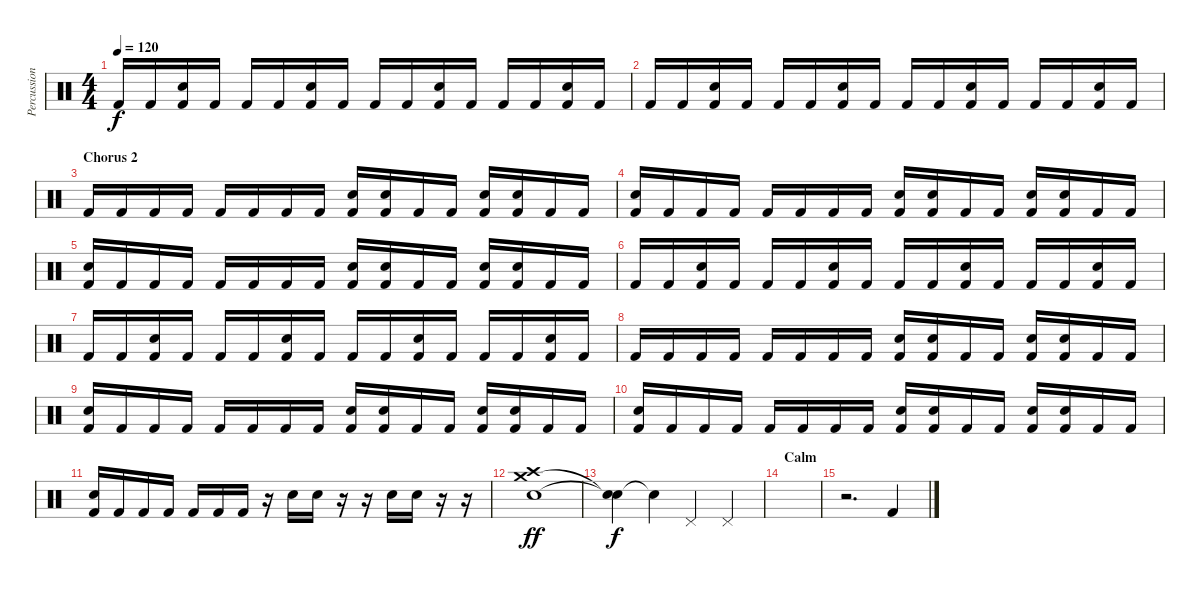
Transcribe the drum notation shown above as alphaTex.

\track ("Percussion" "Percussion") {instrument percussion}
\staff {score}
\articulation defaults
\ts (4 4)
\tempo 120
\clef neutral
\ks c "Kick (hit) 2".16{dy f} "Kick (hit) 2".16
("Snare (hit) 2" "Kick (hit) 2").16 "Kick (hit) 2".16 "Kick (hit) 2".16 "Kick (hit) 2".16 ("Snare (hit) 2" "Kick (hit) 2").16 "Kick (hit) 2".16 "Kick (hit) 2".16 "Kick (hit) 2".16 ("Snare (hit) 2" "Kick (hit) 2").16 "Kick (hit) 2".16 "Kick (hit) 2".16 "Kick (hit) 2".16 ("Snare (hit) 2" "Kick (hit) 2").16 "Kick (hit) 2".16 |
"Kick (hit) 2".16 "Kick (hit) 2".16 ("Snare (hit) 2" "Kick (hit) 2").16 "Kick (hit) 2".16 "Kick (hit) 2".16 "Kick (hit) 2".16 ("Snare (hit) 2" "Kick (hit) 2").16 "Kick (hit) 2".16 "Kick (hit) 2".16 "Kick (hit) 2".16 ("Snare (hit) 2" "Kick (hit) 2").16 "Kick (hit) 2".16 "Kick (hit) 2".16 "Kick (hit) 2".16 ("Snare (hit) 2" "Kick (hit) 2").16 "Kick (hit) 2".16 |
\section ("" "Chorus 2")
"Kick (hit) 2".16 "Kick (hit) 2".16 "Kick (hit) 2".16 "Kick (hit) 2".16 "Kick (hit) 2".16 "Kick (hit) 2".16 "Kick (hit) 2".16 "Kick (hit) 2".16 ("Snare (hit) 2" "Kick (hit) 2").16 ("Snare (hit) 2" "Kick (hit) 2").16 "Kick (hit) 2".16 "Kick (hit) 2".16 ("Snare (hit) 2" "Kick (hit) 2").16 ("Snare (hit) 2" "Kick (hit) 2").16 "Kick (hit) 2".16 "Kick (hit) 2".16 |
("Snare (hit) 2" "Kick (hit) 2").16 "Kick (hit) 2".16 "Kick (hit) 2".16 "Kick (hit) 2".16 "Kick (hit) 2".16 "Kick (hit) 2".16 "Kick (hit) 2".16 "Kick (hit) 2".16 ("Snare (hit) 2" "Kick (hit) 2").16 ("Snare (hit) 2" "Kick (hit) 2").16 "Kick (hit) 2".16 "Kick (hit) 2".16 ("Snare (hit) 2" "Kick (hit) 2").16 ("Snare (hit) 2" "Kick (hit) 2").16 "Kick (hit) 2".16 "Kick (hit) 2".16 |
("Snare (hit) 2" "Kick (hit) 2").16 "Kick (hit) 2".16 "Kick (hit) 2".16 "Kick (hit) 2".16 "Kick (hit) 2".16 "Kick (hit) 2".16 "Kick (hit) 2".16 "Kick (hit) 2".16 ("Snare (hit) 2" "Kick (hit) 2").16 ("Snare (hit) 2" "Kick (hit) 2").16 "Kick (hit) 2".16 "Kick (hit) 2".16 ("Snare (hit) 2" "Kick (hit) 2").16 ("Snare (hit) 2" "Kick (hit) 2").16 "Kick (hit) 2".16 "Kick (hit) 2".16 |
"Kick (hit) 2".16 "Kick (hit) 2".16 ("Snare (hit) 2" "Kick (hit) 2").16 "Kick (hit) 2".16 "Kick (hit) 2".16 "Kick (hit) 2".16 ("Snare (hit) 2" "Kick (hit) 2").16 "Kick (hit) 2".16 "Kick (hit) 2".16 "Kick (hit) 2".16 ("Snare (hit) 2" "Kick (hit) 2").16 "Kick (hit) 2".16 "Kick (hit) 2".16 "Kick (hit) 2".16 ("Snare (hit) 2" "Kick (hit) 2").16 "Kick (hit) 2".16 |
"Kick (hit) 2".16 "Kick (hit) 2".16 ("Snare (hit) 2" "Kick (hit) 2").16 "Kick (hit) 2".16 "Kick (hit) 2".16 "Kick (hit) 2".16 ("Snare (hit) 2" "Kick (hit) 2").16 "Kick (hit) 2".16 "Kick (hit) 2".16 "Kick (hit) 2".16 ("Snare (hit) 2" "Kick (hit) 2").16 "Kick (hit) 2".16 "Kick (hit) 2".16 "Kick (hit) 2".16 ("Snare (hit) 2" "Kick (hit) 2").16 "Kick (hit) 2".16 |
"Kick (hit) 2".16 "Kick (hit) 2".16 "Kick (hit) 2".16 "Kick (hit) 2".16 "Kick (hit) 2".16 "Kick (hit) 2".16 "Kick (hit) 2".16 "Kick (hit) 2".16 ("Snare (hit) 2" "Kick (hit) 2").16 ("Snare (hit) 2" "Kick (hit) 2").16 "Kick (hit) 2".16 "Kick (hit) 2".16 ("Snare (hit) 2" "Kick (hit) 2").16 ("Snare (hit) 2" "Kick (hit) 2").16 "Kick (hit) 2".16 "Kick (hit) 2".16 |
("Snare (hit) 2" "Kick (hit) 2").16 "Kick (hit) 2".16 "Kick (hit) 2".16 "Kick (hit) 2".16 "Kick (hit) 2".16 "Kick (hit) 2".16 "Kick (hit) 2".16 "Kick (hit) 2".16 ("Snare (hit) 2" "Kick (hit) 2").16 ("Snare (hit) 2" "Kick (hit) 2").16 "Kick (hit) 2".16 "Kick (hit) 2".16 ("Snare (hit) 2" "Kick (hit) 2").16 ("Snare (hit) 2" "Kick (hit) 2").16 "Kick (hit) 2".16 "Kick (hit) 2".16 |
("Snare (hit) 2" "Kick (hit) 2").16 "Kick (hit) 2".16 "Kick (hit) 2".16 "Kick (hit) 2".16 "Kick (hit) 2".16 "Kick (hit) 2".16 "Kick (hit) 2".16 "Kick (hit) 2".16 ("Snare (hit) 2" "Kick (hit) 2").16 ("Snare (hit) 2" "Kick (hit) 2").16 "Kick (hit) 2".16 "Kick (hit) 2".16 ("Snare (hit) 2" "Kick (hit) 2").16 ("Snare (hit) 2" "Kick (hit) 2").16 "Kick (hit) 2".16 "Kick (hit) 2".16 |
("Snare (hit) 2" "Kick (hit) 2").16 "Kick (hit) 2".16 "Kick (hit) 2".16 "Kick (hit) 2".16 "Kick (hit) 2".16 "Kick (hit) 2".16 "Kick (hit) 2".16 r.16 "Snare (hit) 2".16 "Snare (hit) 2".16 r.16 r.16 "Snare (hit) 2".16 "Snare (hit) 2".16 r.16 r.16 |
("Crash medium (hit)" "Snare (hit) 2" "Crash high (hit)").1{dy ff} |
("Snare (hit)"{t} "Snare (hit)"{t}).4{dy f} "Snare (hit)"{t}.4 "Pedal Hi-Hat (hit)".4 "Pedal Hi-Hat (hit)".4 |
\section ("" "Calm")
|
r.2{d} "Kick (hit) 2".4
